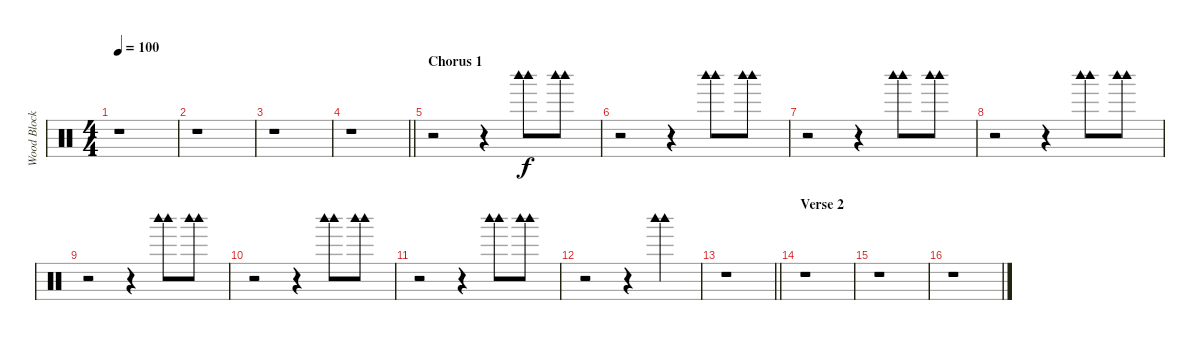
\track ("Wood Block - Chad" "Wood Block") {instrument percussion}
\staff {score}
\articulation defaults
\ts (4 4)
\tempo 100
\clef neutral
\ks c
r.1{dy f} |
r.1 |
r.1 |
\barLineRight lightlight
r.1 |
\section ("" "Chorus 1")
r.2 r.4 ("Woodblock high (hit)" "Woodblock high (hit)").8 ("Woodblock high (hit)" "Woodblock high (hit)").8 |
r.2 r.4 ("Woodblock high (hit)" "Woodblock high (hit)").8 ("Woodblock high (hit)" "Woodblock high (hit)").8 |
r.2 r.4 ("Woodblock high (hit)" "Woodblock high (hit)").8 ("Woodblock high (hit)" "Woodblock high (hit)").8 |
r.2 r.4 ("Woodblock high (hit)" "Woodblock high (hit)").8 ("Woodblock high (hit)" "Woodblock high (hit)").8 |
r.2 r.4 ("Woodblock high (hit)" "Woodblock high (hit)").8 ("Woodblock high (hit)" "Woodblock high (hit)").8 |
r.2 r.4 ("Woodblock high (hit)" "Woodblock high (hit)").8 ("Woodblock high (hit)" "Woodblock high (hit)").8 |
r.2 r.4 ("Woodblock high (hit)" "Woodblock high (hit)").8 ("Woodblock high (hit)" "Woodblock high (hit)").8 |
r.2 r.4 ("Woodblock high (hit)" "Woodblock high (hit)").4 |
\barLineRight lightlight
r.1 |
\section ("" "Verse 2")
r.1 |
r.1 |
r.1
